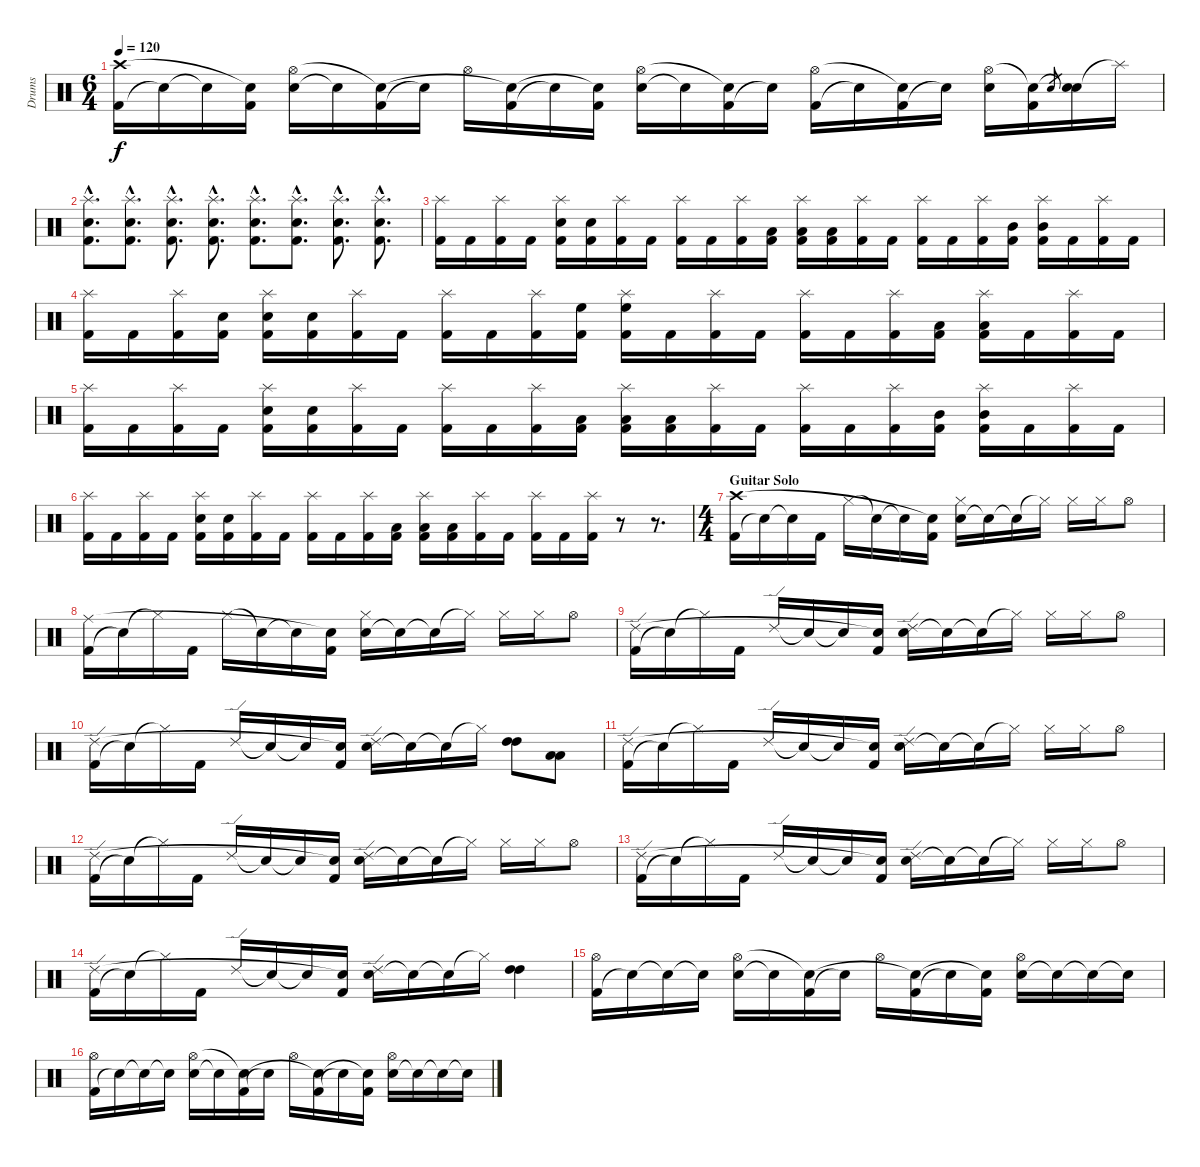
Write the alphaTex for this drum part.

\track ("Drums" "Drums") {instrument percussion}
\staff {score}
\articulation defaults
\ts (6 4)
\tempo 120
\clef neutral
\ks c
("Kick (hit) 2" "Crash high (hit)").16{dy f} "Snare (hit)"{t}.16 "Snare (hit)"{t}.16 ("Kick (hit) 2" "Snare (hit)"{t}).16 ("Snare (hit) 2" "Hi-Hat (open)").16 "Snare (hit)"{t}.16 ("Kick (hit) 2" "Snare (hit)"{t}).16 "Snare (hit)"{t}.16 "Hi-Hat (open)".16 ("Kick (hit) 2" "Snare (hit)"{t}).16 "Snare (hit)"{t}.16 ("Kick (hit) 2" "Snare (hit)"{t}).16 ("Snare (hit) 2" "Hi-Hat (open)").16 "Snare (hit)"{t}.16 ("Kick (hit) 2" "Snare (hit)"{t}).16 "Snare (hit)"{t}.16 ("Kick (hit) 2" "Hi-Hat (open)").16 "Snare (hit)"{t}.16 ("Kick (hit) 2" "Snare (hit)"{t}).16 "Snare (hit)"{t}.16 ("Snare (hit) 2" "Hi-Hat (open)").16 ("Kick (hit) 2" "Snare (hit)"{t}).16 "Snare (hit) 2".8{gr} ("Snare (hit) 2" "Snare (hit)"{t}).16 "Splash (hit)"{t}.16 |
("Kick (hit) 2"{hac} "Snare (hit) 2"{hac} "Splash (hit)"{hac}).8{d} ("Kick (hit) 2"{hac} "Snare (hit) 2"{hac} "Splash (hit)"{hac}).8{d} ("Kick (hit) 2"{hac} "Snare (hit) 2"{hac} "Splash (hit)"{hac}).8{d} ("Kick (hit) 2"{hac} "Snare (hit) 2"{hac} "Splash (hit)"{hac}).8{d} ("Kick (hit) 2"{hac} "Snare (hit) 2"{hac} "Splash (hit)"{hac}).8{d} ("Kick (hit) 2"{hac} "Snare (hit) 2"{hac} "Splash (hit)"{hac}).8{d} ("Kick (hit) 2"{hac} "Snare (hit) 2"{hac} "Splash (hit)"{hac}).8{d} ("Kick (hit) 2"{hac} "Snare (hit) 2"{hac} "Splash (hit)"{hac}).8{d} |
("Kick (hit) 2" "Splash (hit)").16 "Kick (hit) 2".16 ("Kick (hit) 2" "Splash (hit)").16 "Kick (hit) 2".16 ("Kick (hit) 2" "Snare (hit) 2" "Splash (hit)").16 ("Kick (hit) 2" "Snare (hit) 2").16 ("Kick (hit) 2" "Splash (hit)").16 "Kick (hit) 2".16 ("Kick (hit) 2" "Splash (hit)").16 "Kick (hit) 2".16 ("Kick (hit) 2" "Splash (hit)").16 ("Kick (hit) 2" "Low Tom (hit)").16 ("Kick (hit) 2" "Low Tom (hit)" "Splash (hit)").16 ("Kick (hit) 2" "Low Tom (hit)").16 ("Kick (hit) 2" "Splash (hit)").16 "Kick (hit) 2".16 ("Kick (hit) 2" "Splash (hit)").16 "Kick (hit) 2".16 ("Kick (hit) 2" "Splash (hit)").16 ("Kick (hit) 2" "Mid Tom (hit)").16 ("Kick (hit) 2" "Mid Tom (hit)" "Splash (hit)").16 "Kick (hit) 2".16 ("Kick (hit) 2" "Splash (hit)").16 "Kick (hit) 2".16 |
("Kick (hit) 2" "Splash (hit)").16 "Kick (hit) 2".16 ("Kick (hit) 2" "Splash (hit)").16 ("Kick (hit) 2" "Snare (hit) 2").16 ("Kick (hit) 2" "Snare (hit) 2" "Splash (hit)").16 ("Kick (hit) 2" "Snare (hit) 2").16 ("Kick (hit) 2" "Splash (hit)").16 "Kick (hit) 2".16 ("Kick (hit) 2" "Splash (hit)").16 "Kick (hit) 2".16 ("Kick (hit) 2" "Splash (hit)").16 ("Kick (hit) 2" "High Floor Tom (hit)").16 ("Kick (hit) 2" "High Floor Tom (hit)" "Splash (hit)").16 "Kick (hit) 2".16 ("Kick (hit) 2" "Splash (hit)").16 "Kick (hit) 2".16 ("Kick (hit) 2" "Splash (hit)").16 "Kick (hit) 2".16 ("Kick (hit) 2" "Splash (hit)").16 ("Kick (hit) 2" "Low Tom (hit)").16 ("Kick (hit) 2" "Low Tom (hit)" "Splash (hit)").16 "Kick (hit) 2".16 ("Kick (hit) 2" "Splash (hit)").16 "Kick (hit) 2".16 |
("Kick (hit) 2" "Splash (hit)").16 "Kick (hit) 2".16 ("Kick (hit) 2" "Splash (hit)").16 "Kick (hit) 2".16 ("Kick (hit) 2" "Snare (hit) 2" "Splash (hit)").16 ("Kick (hit) 2" "Snare (hit) 2").16 ("Kick (hit) 2" "Splash (hit)").16 "Kick (hit) 2".16 ("Kick (hit) 2" "Splash (hit)").16 "Kick (hit) 2".16 ("Kick (hit) 2" "Splash (hit)").16 ("Kick (hit) 2" "Low Tom (hit)").16 ("Kick (hit) 2" "Low Tom (hit)" "Splash (hit)").16 ("Kick (hit) 2" "Low Tom (hit)").16 ("Kick (hit) 2" "Splash (hit)").16 "Kick (hit) 2".16 ("Kick (hit) 2" "Splash (hit)").16 "Kick (hit) 2".16 ("Kick (hit) 2" "Splash (hit)").16 ("Kick (hit) 2" "Mid Tom (hit)").16 ("Kick (hit) 2" "Mid Tom (hit)" "Splash (hit)").16 "Kick (hit) 2".16 ("Kick (hit) 2" "Splash (hit)").16 "Kick (hit) 2".16 |
("Kick (hit) 2" "Splash (hit)").16 "Kick (hit) 2".16 ("Kick (hit) 2" "Splash (hit)").16 "Kick (hit) 2".16 ("Kick (hit) 2" "Snare (hit) 2" "Splash (hit)").16 ("Kick (hit) 2" "Snare (hit) 2").16 ("Kick (hit) 2" "Splash (hit)").16 "Kick (hit) 2".16 ("Kick (hit) 2" "Splash (hit)").16 "Kick (hit) 2".16 ("Kick (hit) 2" "Splash (hit)").16 ("Kick (hit) 2" "Low Tom (hit)").16 ("Kick (hit) 2" "Low Tom (hit)" "Splash (hit)").16 ("Kick (hit) 2" "Low Tom (hit)").16 ("Kick (hit) 2" "Splash (hit)").16 "Kick (hit) 2".16 ("Kick (hit) 2" "Splash (hit)").16 "Kick (hit) 2".16 ("Kick (hit) 2" "Splash (hit)").16 r.8 r.8{d} |
\ts (4 4)
\section ("" "Guitar Solo")
("Kick (hit) 2" "Crash high (hit)").16 "Snare (hit)"{t}.16 "Snare (hit)"{t}.16 "Kick (hit) 2".16 "Hi-Hat (closed)".16 "Snare (hit)"{t}.16 "Snare (hit)"{t}.16 ("Kick (hit) 2" "Snare (hit)"{t}).16 ("Snare (hit) 2" "Hi-Hat (closed)").16 "Snare (hit)"{t}.16 "Snare (hit)"{t}.16 "Hi-Hat (closed)"{t}.16 "Hi-Hat (closed)".16 "Hi-Hat (closed)".16 "Hi-Hat (open)".8 |
("Kick (hit) 2" "Ride (middle)").16 "Snare (hit)"{t}.16 "Hi-Hat (closed)"{t}.16 "Kick (hit) 2".16 "Hi-Hat (closed)".16 "Snare (hit)"{t}.16 "Snare (hit)"{t}.16 ("Kick (hit) 2" "Snare (hit)"{t}).16 ("Snare (hit) 2" "Hi-Hat (closed)").16 "Snare (hit)"{t}.16 "Snare (hit)"{t}.16 "Hi-Hat (closed)"{t}.16 "Hi-Hat (closed)".16 "Hi-Hat (closed)".16 "Hi-Hat (open)".8 |
("Kick (hit) 2" "Ride (edge) 2").16 "Snare (hit)"{t}.16 "Hi-Hat (closed)"{t}.16 "Kick (hit) 2".16 "Ride (edge) 2".16 "Snare (hit)"{t}.16 "Snare (hit)"{t}.16 ("Kick (hit) 2" "Snare (hit)"{t}).16 ("Snare (hit) 2" "Ride (edge) 2").16 "Snare (hit)"{t}.16 "Snare (hit)"{t}.16 "Hi-Hat (closed)"{t}.16 "Hi-Hat (closed)".16 "Hi-Hat (closed)".16 "Hi-Hat (open)".8 |
("Kick (hit) 2" "Ride (edge) 2").16 "Snare (hit)"{t}.16 "Hi-Hat (closed)"{t}.16 "Kick (hit) 2".16 "Ride (edge) 2".16 "Snare (hit)"{t}.16 "Snare (hit)"{t}.16 ("Kick (hit) 2" "Snare (hit)"{t}).16 ("Snare (hit) 2" "Ride (edge) 2").16 "Snare (hit)"{t}.16 "Snare (hit)"{t}.16 "Hi-Hat (closed)"{t}.16 ("High Tom (hit)" "High Tom (hit)").8 ("Low Tom (hit)" "Low Tom (hit)").8 |
("Kick (hit) 2" "Ride (edge) 2").16 "Snare (hit)"{t}.16 "Hi-Hat (closed)"{t}.16 "Kick (hit) 2".16 "Ride (edge) 2".16 "Snare (hit)"{t}.16 "Snare (hit)"{t}.16 ("Kick (hit) 2" "Snare (hit)"{t}).16 ("Snare (hit) 2" "Ride (edge) 2").16 "Snare (hit)"{t}.16 "Snare (hit)"{t}.16 "Hi-Hat (closed)"{t}.16 "Hi-Hat (closed)".16 "Hi-Hat (closed)".16 "Hi-Hat (open)".8 |
("Kick (hit) 2" "Ride (edge) 2").16 "Snare (hit)"{t}.16 "Hi-Hat (closed)"{t}.16 "Kick (hit) 2".16 "Ride (edge) 2".16 "Snare (hit)"{t}.16 "Snare (hit)"{t}.16 ("Kick (hit) 2" "Snare (hit)"{t}).16 ("Snare (hit) 2" "Ride (edge) 2").16 "Snare (hit)"{t}.16 "Snare (hit)"{t}.16 "Hi-Hat (closed)"{t}.16 "Hi-Hat (closed)".16 "Hi-Hat (closed)".16 "Hi-Hat (open)".8 |
("Kick (hit) 2" "Ride (edge) 2").16 "Snare (hit)"{t}.16 "Hi-Hat (closed)"{t}.16 "Kick (hit) 2".16 "Ride (edge) 2".16 "Snare (hit)"{t}.16 "Snare (hit)"{t}.16 ("Kick (hit) 2" "Snare (hit)"{t}).16 ("Snare (hit) 2" "Ride (edge) 2").16 "Snare (hit)"{t}.16 "Snare (hit)"{t}.16 "Hi-Hat (closed)"{t}.16 "Hi-Hat (closed)".16 "Hi-Hat (closed)".16 "Hi-Hat (open)".8 |
("Kick (hit) 2" "Ride (edge) 2").16 "Snare (hit)"{t}.16 "Hi-Hat (closed)"{t}.16 "Kick (hit) 2".16 "Ride (edge) 2".16 "Snare (hit)"{t}.16 "Snare (hit)"{t}.16 ("Kick (hit) 2" "Snare (hit)"{t}).16 ("Snare (hit) 2" "Ride (edge) 2").16 "Snare (hit)"{t}.16 "Snare (hit)"{t}.16 "Hi-Hat (closed)"{t}.16 ("High Tom (hit)" "High Tom (hit)").4 |
("Kick (hit) 2" "Hi-Hat (open)").16 "Snare (hit)"{t}.16 "Snare (hit)"{t}.16 "Snare (hit)"{t}.16 ("Snare (hit) 2" "Hi-Hat (open)").16 "Snare (hit)"{t}.16 ("Kick (hit) 2" "Snare (hit)"{t}).16 "Snare (hit)"{t}.16 "Hi-Hat (open)".16 ("Kick (hit) 2" "Snare (hit)"{t}).16 "Snare (hit)"{t}.16 ("Kick (hit) 2" "Snare (hit)"{t}).16 ("Snare (hit) 2" "Hi-Hat (open)").16 "Snare (hit)"{t}.16 "Snare (hit)"{t}.16 "Snare (hit)"{t}.16 |
("Kick (hit) 2" "Hi-Hat (open)").16 "Snare (hit)"{t}.16 "Snare (hit)"{t}.16 "Snare (hit)"{t}.16 ("Snare (hit) 2" "Hi-Hat (open)").16 "Snare (hit)"{t}.16 ("Kick (hit) 2" "Snare (hit)"{t}).16 "Snare (hit)"{t}.16 "Hi-Hat (open)".16 ("Kick (hit) 2" "Snare (hit)"{t}).16 "Snare (hit)"{t}.16 ("Kick (hit) 2" "Snare (hit)"{t}).16 ("Snare (hit) 2" "Hi-Hat (open)").16 "Snare (hit)"{t}.16 "Snare (hit)"{t}.16 "Snare (hit)"{t}.16
